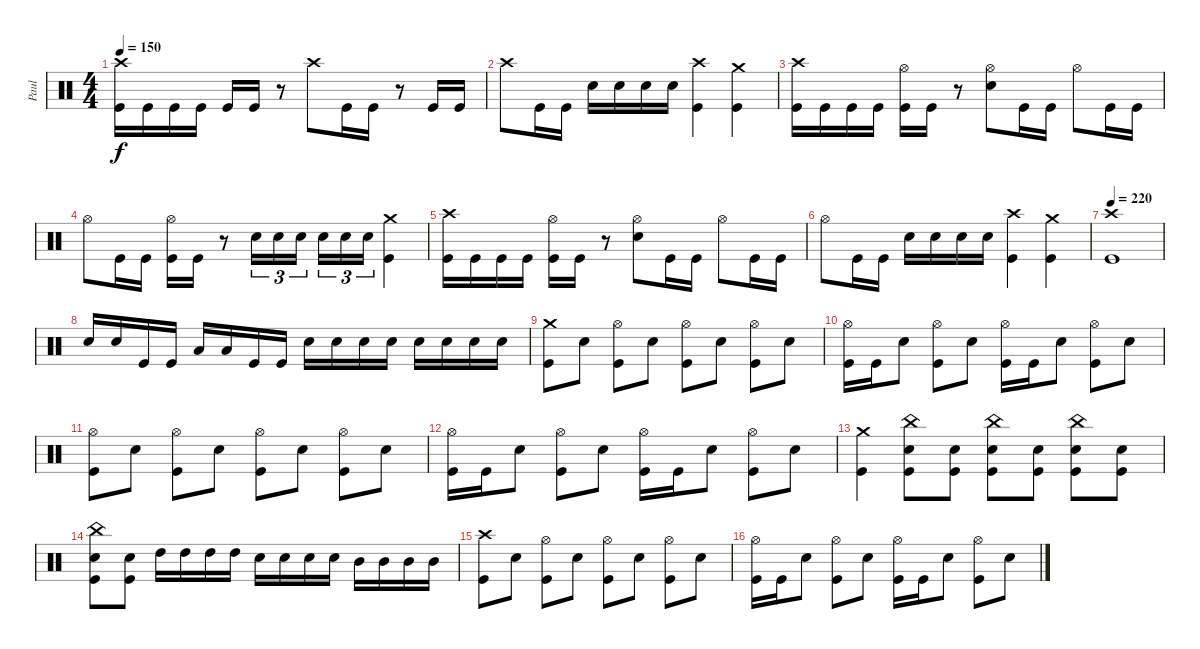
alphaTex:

\track ("Paul" "Paul") {instrument percussion}
\staff {score}
\articulation defaults
\ts (4 4)
\tempo 150
\clef neutral
\ks c
("Crash high (hit)" "Kick (hit)").16{dy f} "Kick (hit)".16 "Kick (hit)".16 "Kick (hit)".16 "Kick (hit)".16 "Kick (hit)".16 r.8 "Crash high (hit)".8 "Kick (hit)".16 "Kick (hit)".16 r.8 "Kick (hit)".16 "Kick (hit)".16 |
"Crash high (hit)".8 "Kick (hit)".16 "Kick (hit)".16 "Electric Snare (hit)".16 "Electric Snare (hit)".16 "Electric Snare (hit)".16 "Electric Snare (hit)".16 ("Crash high (hit)" "Kick (hit)").4 ("Crash medium (hit)" "Kick (hit)").4 |
("Crash high (hit)" "Kick (hit)").16 "Kick (hit)".16 "Kick (hit)".16 "Kick (hit)".16 ("Hi-Hat (open)" "Kick (hit)").16 "Kick (hit)".16 r.8 ("Hi-Hat (open)" "Electric Snare (hit)").8 "Kick (hit)".16 "Kick (hit)".16 "Hi-Hat (open)".8 "Kick (hit)".16 "Kick (hit)".16 |
"Hi-Hat (open)".8 "Kick (hit)".16 "Kick (hit)".16 ("Hi-Hat (open)" "Kick (hit)").16 "Kick (hit)".16 r.8 "Electric Snare (hit)".16{tu (3 2)} "Electric Snare (hit)".16{tu (3 2)} "Electric Snare (hit)".16{tu (3 2) beam splitsecondary} "Electric Snare (hit)".16{tu (3 2)} "Electric Snare (hit)".16{tu (3 2)} "Electric Snare (hit)".16{tu (3 2)} ("Crash medium (hit)" "Kick (hit)").4 |
("Crash high (hit)" "Kick (hit)").16 "Kick (hit)".16 "Kick (hit)".16 "Kick (hit)".16 ("Hi-Hat (open)" "Kick (hit)").16 "Kick (hit)".16 r.8 ("Hi-Hat (open)" "Electric Snare (hit)").8 "Kick (hit)".16 "Kick (hit)".16 "Hi-Hat (open)".8 "Kick (hit)".16 "Kick (hit)".16 |
"Hi-Hat (open)".8 "Kick (hit)".16 "Kick (hit)".16 "Electric Snare (hit)".16 "Electric Snare (hit)".16 "Electric Snare (hit)".16 "Electric Snare (hit)".16 ("Crash high (hit)" "Kick (hit)").4 ("Crash medium (hit)" "Kick (hit)").4 |
\tempo 220
("Crash high (hit)" "Kick (hit)").1 |
"Electric Snare (hit)".16 "Electric Snare (hit)".16 "Kick (hit)".16 "Kick (hit)".16 "Low Floor Tom (hit)".16 "Low Floor Tom (hit)".16 "Kick (hit)".16 "Kick (hit)".16 "Electric Snare (hit)".16 "Electric Snare (hit)".16 "Electric Snare (hit)".16 "Electric Snare (hit)".16 "Electric Snare (hit)".16 "Electric Snare (hit)".16 "Electric Snare (hit)".16 "Electric Snare (hit)".16 |
("Crash medium (hit)" "Kick (hit)").8 "Electric Snare (hit)".8 ("Hi-Hat (open)" "Kick (hit)").8 "Electric Snare (hit)".8 ("Hi-Hat (open)" "Kick (hit)").8 "Electric Snare (hit)".8 ("Hi-Hat (open)" "Kick (hit)").8 "Electric Snare (hit)".8 |
("Hi-Hat (open)" "Kick (hit)").16 "Kick (hit)".16 "Electric Snare (hit)".8 ("Hi-Hat (open)" "Kick (hit)").8 "Electric Snare (hit)".8 ("Hi-Hat (open)" "Kick (hit)").16 "Kick (hit)".16 "Electric Snare (hit)".8 ("Hi-Hat (open)" "Kick (hit)").8 "Electric Snare (hit)".8 |
("Hi-Hat (open)" "Kick (hit)").8 "Electric Snare (hit)".8 ("Hi-Hat (open)" "Kick (hit)").8 "Electric Snare (hit)".8 ("Hi-Hat (open)" "Kick (hit)").8 "Electric Snare (hit)".8 ("Hi-Hat (open)" "Kick (hit)").8 "Electric Snare (hit)".8 |
("Hi-Hat (open)" "Kick (hit)").16 "Kick (hit)".16 "Electric Snare (hit)".8 ("Hi-Hat (open)" "Kick (hit)").8 "Electric Snare (hit)".8 ("Hi-Hat (open)" "Kick (hit)").16 "Kick (hit)".16 "Electric Snare (hit)".8 ("Hi-Hat (open)" "Kick (hit)").8 "Electric Snare (hit)".8 |
("Crash medium (hit)" "Kick (hit)").4 ("China (hit)" "Electric Snare (hit)" "Kick (hit)").8 ("Electric Snare (hit)" "Kick (hit)").8 ("China (hit)" "Electric Snare (hit)" "Kick (hit)").8 ("Electric Snare (hit)" "Kick (hit)").8 ("China (hit)" "Electric Snare (hit)" "Kick (hit)").8 ("Electric Snare (hit)" "Kick (hit)").8 |
("China (hit)" "Electric Snare (hit)" "Kick (hit)").8 ("Electric Snare (hit)" "Kick (hit)").8 "High Tom (hit)".16 "High Tom (hit)".16 "High Tom (hit)".16 "High Tom (hit)".16 "Electric Snare (hit)".16 "Electric Snare (hit)".16 "Electric Snare (hit)".16 "Electric Snare (hit)".16 "Mid Tom (hit)".16 "Mid Tom (hit)".16 "Mid Tom (hit)".16 "Mid Tom (hit)".16 |
("Crash high (hit)" "Kick (hit)").8 "Electric Snare (hit)".8 ("Hi-Hat (open)" "Kick (hit)").8 "Electric Snare (hit)".8 ("Hi-Hat (open)" "Kick (hit)").8 "Electric Snare (hit)".8 ("Hi-Hat (open)" "Kick (hit)").8 "Electric Snare (hit)".8 |
("Hi-Hat (open)" "Kick (hit)").16 "Kick (hit)".16 "Electric Snare (hit)".8 ("Hi-Hat (open)" "Kick (hit)").8 "Electric Snare (hit)".8 ("Hi-Hat (open)" "Kick (hit)").16 "Kick (hit)".16 "Electric Snare (hit)".8 ("Hi-Hat (open)" "Kick (hit)").8 "Electric Snare (hit)".8
